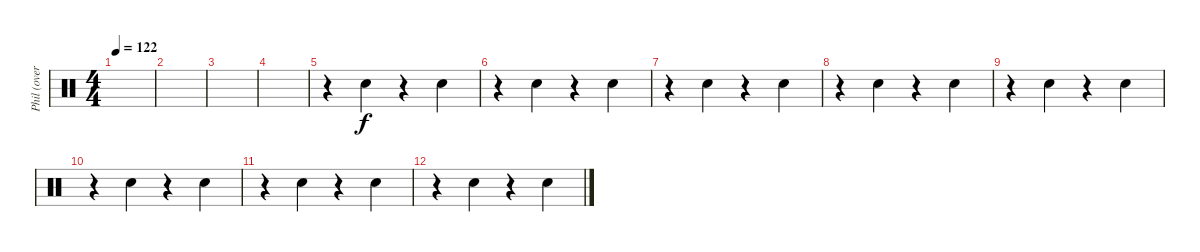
\track ("Phil (overdub)" "Phil (over") {instrument percussion}
\staff {score}
\articulation defaults
\ts (4 4)
\tempo 122
\clef neutral
\ks c
|
|
|
|
r.4 "Electric Snare (hit)".4{balance 16} r.4 "Electric Snare (hit)".4{balance 16} |
r.4 "Electric Snare (hit)".4{balance 16} r.4 "Electric Snare (hit)".4{balance 16} |
r.4 "Electric Snare (hit)".4{balance 16} r.4 "Electric Snare (hit)".4{balance 16} |
r.4 "Electric Snare (hit)".4{balance 16} r.4 "Electric Snare (hit)".4{balance 16} |
r.4 "Electric Snare (hit)".4{balance 16} r.4 "Electric Snare (hit)".4{balance 16} |
r.4 "Electric Snare (hit)".4{balance 16} r.4 "Electric Snare (hit)".4{balance 16} |
r.4 "Electric Snare (hit)".4{balance 16} r.4 "Electric Snare (hit)".4{balance 16} |
r.4 "Electric Snare (hit)".4{balance 16} r.4 "Electric Snare (hit)".4{balance 16}
